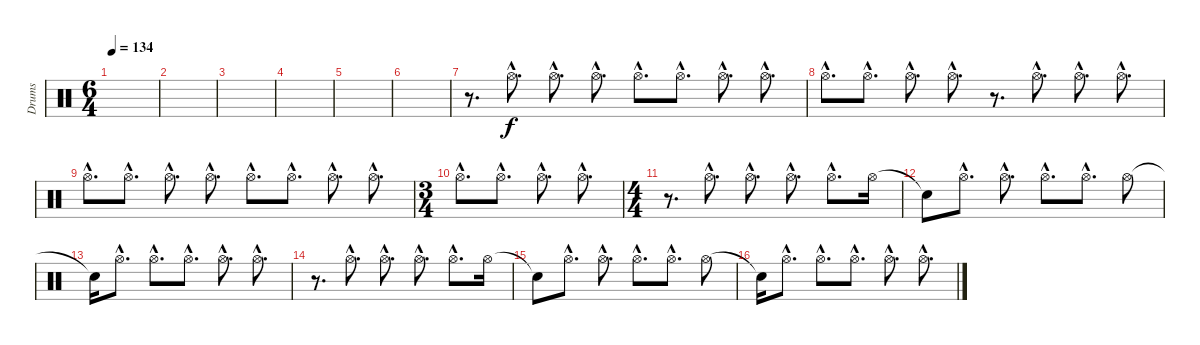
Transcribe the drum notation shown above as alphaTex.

\track ("Drums" "Drums") {instrument percussion}
\staff {score}
\articulation defaults
\ts (6 4)
\tempo 134
\clef neutral
\ks c
|
|
|
|
|
|
\section ("" "")
r.8{d} "Hi-Hat (open)"{hac}.8{d} "Hi-Hat (open)"{hac}.8{d} "Hi-Hat (open)"{hac}.8{d} "Hi-Hat (open)"{hac}.8{d} "Hi-Hat (open)"{hac}.8{d} "Hi-Hat (open)"{hac}.8{d} "Hi-Hat (open)"{hac}.8{d} |
"Hi-Hat (open)"{hac}.8{d} "Hi-Hat (open)"{hac}.8{d} "Hi-Hat (open)"{hac}.8{d} "Hi-Hat (open)"{hac}.8{d} r.8{d} "Hi-Hat (open)"{hac}.8{d} "Hi-Hat (open)"{hac}.8{d} "Hi-Hat (open)"{hac}.8{d} |
"Hi-Hat (open)"{hac}.8{d} "Hi-Hat (open)"{hac}.8{d} "Hi-Hat (open)"{hac}.8{d} "Hi-Hat (open)"{hac}.8{d} "Hi-Hat (open)"{hac}.8{d} "Hi-Hat (open)"{hac}.8{d} "Hi-Hat (open)"{hac}.8{d} "Hi-Hat (open)"{hac}.8{d} |
\ts (3 4)
"Hi-Hat (open)"{hac}.8{d} "Hi-Hat (open)"{hac}.8{d} "Hi-Hat (open)"{hac}.8{d} "Hi-Hat (open)"{hac}.8{d} |
\ts (4 4)
r.8{d} "Hi-Hat (open)"{hac}.8{d} "Hi-Hat (open)"{hac}.8{d} "Hi-Hat (open)"{hac}.8{d} "Hi-Hat (open)"{hac}.8{d} "Hi-Hat (open)".16 |
"Snare (hit)"{t}.8 "Hi-Hat (open)"{hac}.8{d} "Hi-Hat (open)"{hac}.8{d} "Hi-Hat (open)"{hac}.8{d} "Hi-Hat (open)"{hac}.8{d} "Hi-Hat (open)".8 |
"Snare (hit)"{t}.16 "Hi-Hat (open)"{hac}.8{d} "Hi-Hat (open)"{hac}.8{d} "Hi-Hat (open)"{hac}.8{d} "Hi-Hat (open)"{hac}.8{d} "Hi-Hat (open)"{hac}.8{d} |
r.8{d} "Hi-Hat (open)"{hac}.8{d} "Hi-Hat (open)"{hac}.8{d} "Hi-Hat (open)"{hac}.8{d} "Hi-Hat (open)"{hac}.8{d} "Hi-Hat (open)".16 |
"Snare (hit)"{t}.8 "Hi-Hat (open)"{hac}.8{d} "Hi-Hat (open)"{hac}.8{d} "Hi-Hat (open)"{hac}.8{d} "Hi-Hat (open)"{hac}.8{d} "Hi-Hat (open)".8 |
"Snare (hit)"{t}.16 "Hi-Hat (open)"{hac}.8{d} "Hi-Hat (open)"{hac}.8{d} "Hi-Hat (open)"{hac}.8{d} "Hi-Hat (open)"{hac}.8{d} "Hi-Hat (open)"{hac}.8{d}
